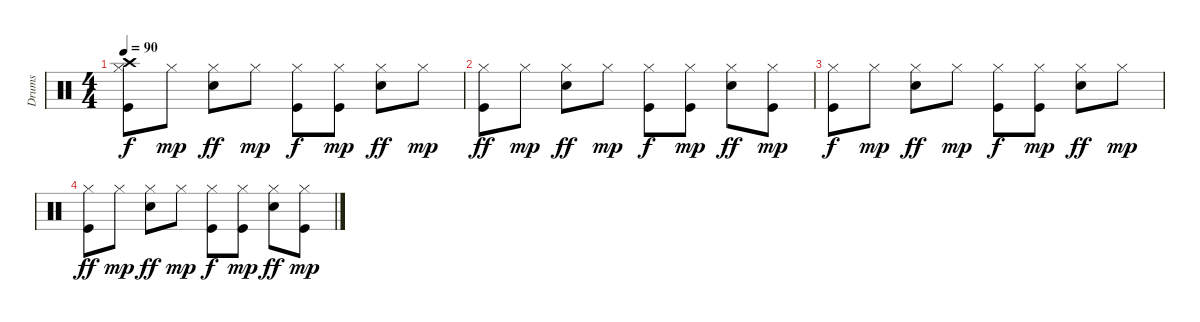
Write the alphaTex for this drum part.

\track ("Drums" "Drums") {instrument percussion}
\staff {score}
\articulation defaults
\ts (4 4)
\tempo 90
\clef neutral
\ks c
("Kick (hit)" "Hi-Hat (closed)" "Crash high (hit)").8{dy f} "Hi-Hat (closed)".8{dy mp} ("Snare (hit) 2" "Hi-Hat (closed)").8{dy ff} "Hi-Hat (closed)".8{dy mp} ("Kick (hit)" "Hi-Hat (closed)").8{dy f} ("Kick (hit)" "Hi-Hat (closed)").8{dy mp} ("Snare (hit) 2" "Hi-Hat (closed)").8{dy ff} "Hi-Hat (closed)".8{dy mp} |
("Kick (hit)" "Hi-Hat (closed)").8{dy ff} "Hi-Hat (closed)".8{dy mp} ("Snare (hit) 2" "Hi-Hat (closed)").8{dy ff} "Hi-Hat (closed)".8{dy mp} ("Kick (hit)" "Hi-Hat (closed)").8{dy f} ("Kick (hit)" "Hi-Hat (closed)").8{dy mp} ("Snare (hit) 2" "Hi-Hat (closed)").8{dy ff} ("Kick (hit)" "Hi-Hat (closed)").8{dy mp} |
("Kick (hit)" "Hi-Hat (closed)").8{dy f volume 3} "Hi-Hat (closed)".8{dy mp} ("Snare (hit) 2" "Hi-Hat (closed)").8{dy ff} "Hi-Hat (closed)".8{dy mp} ("Kick (hit)" "Hi-Hat (closed)").8{dy f} ("Kick (hit)" "Hi-Hat (closed)").8{dy mp} ("Snare (hit) 2" "Hi-Hat (closed)").8{dy ff} "Hi-Hat (closed)".8{dy mp} |
("Kick (hit)" "Hi-Hat (closed)").8{dy ff} "Hi-Hat (closed)".8{dy mp} ("Snare (hit) 2" "Hi-Hat (closed)").8{dy ff} "Hi-Hat (closed)".8{dy mp} ("Kick (hit)" "Hi-Hat (closed)").8{dy f} ("Kick (hit)" "Hi-Hat (closed)").8{dy mp} ("Snare (hit) 2" "Hi-Hat (closed)").8{dy ff} ("Kick (hit)" "Hi-Hat (closed)").8{dy mp}
